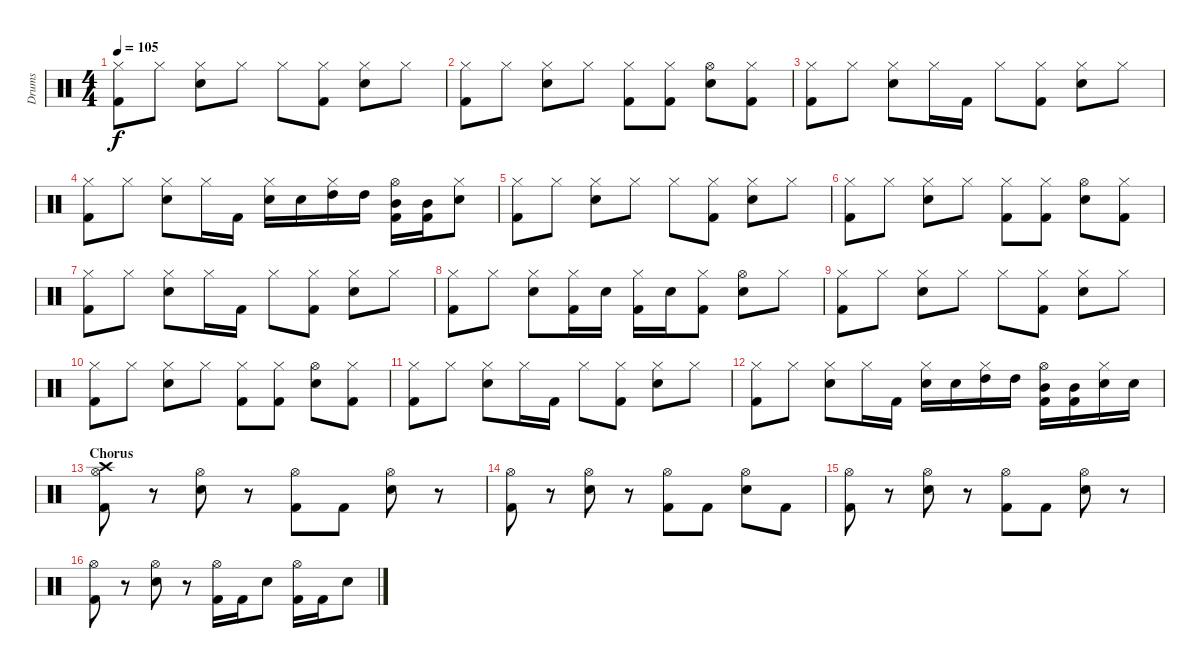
\track ("Drums" "Drums") {instrument percussion}
\staff {score}
\articulation defaults
\ts (4 4)
\tempo 105
\clef neutral
\ks c
("Hi-Hat (closed)" "Kick (hit) 2").8{dy f} "Hi-Hat (closed)".8 ("Hi-Hat (closed)" "Electric Snare (hit)").8 "Hi-Hat (closed)".8 "Hi-Hat (closed)".8 ("Hi-Hat (closed)" "Kick (hit) 2").8 ("Hi-Hat (closed)" "Electric Snare (hit)").8 "Hi-Hat (closed)".8 |
("Hi-Hat (closed)" "Kick (hit) 2").8 "Hi-Hat (closed)".8 ("Hi-Hat (closed)" "Electric Snare (hit)").8 "Hi-Hat (closed)".8 ("Hi-Hat (closed)" "Kick (hit) 2").8 ("Hi-Hat (closed)" "Kick (hit) 2").8 ("Hi-Hat (open)" "Electric Snare (hit)").8 ("Hi-Hat (closed)" "Kick (hit) 2").8 |
("Hi-Hat (closed)" "Kick (hit) 2").8 "Hi-Hat (closed)".8 ("Hi-Hat (closed)" "Electric Snare (hit)").8 "Hi-Hat (closed)".16 "Kick (hit) 2".16 "Hi-Hat (closed)".8 ("Hi-Hat (closed)" "Kick (hit) 2").8 ("Hi-Hat (closed)" "Electric Snare (hit)").8 "Hi-Hat (closed)".8 |
("Hi-Hat (closed)" "Kick (hit) 2").8 "Hi-Hat (closed)".8 ("Hi-Hat (closed)" "Electric Snare (hit)").8 "Hi-Hat (closed)".16 "Kick (hit) 2".16 ("Hi-Hat (closed)" "Electric Snare (hit)").16 "Electric Snare (hit)".16 ("Hi-Hat (closed)" "High Tom (hit)").16 "High Tom (hit)".16 ("Hi-Hat (open)" "Mid Tom (hit)" "Kick (hit) 2").16 ("Mid Tom (hit)" "Kick (hit) 2").16 ("Hi-Hat (closed)" "Electric Snare (hit)").8 |
("Hi-Hat (closed)" "Kick (hit) 2").8 "Hi-Hat (closed)".8 ("Hi-Hat (closed)" "Electric Snare (hit)").8 "Hi-Hat (closed)".8 "Hi-Hat (closed)".8 ("Hi-Hat (closed)" "Kick (hit) 2").8 ("Hi-Hat (closed)" "Electric Snare (hit)").8 "Hi-Hat (closed)".8 |
("Hi-Hat (closed)" "Kick (hit) 2").8 "Hi-Hat (closed)".8 ("Hi-Hat (closed)" "Electric Snare (hit)").8 "Hi-Hat (closed)".8 ("Hi-Hat (closed)" "Kick (hit) 2").8 ("Hi-Hat (closed)" "Kick (hit) 2").8 ("Hi-Hat (open)" "Electric Snare (hit)").8 ("Hi-Hat (closed)" "Kick (hit) 2").8 |
("Hi-Hat (closed)" "Kick (hit) 2").8 "Hi-Hat (closed)".8 ("Hi-Hat (closed)" "Electric Snare (hit)").8 "Hi-Hat (closed)".16 "Kick (hit) 2".16 "Hi-Hat (closed)".8 ("Hi-Hat (closed)" "Kick (hit) 2").8 ("Hi-Hat (closed)" "Electric Snare (hit)").8 "Hi-Hat (closed)".8 |
("Hi-Hat (closed)" "Kick (hit) 2").8 "Hi-Hat (closed)".8 ("Hi-Hat (closed)" "Electric Snare (hit)").8 ("Hi-Hat (closed)" "Kick (hit) 2").16 "Electric Snare (hit)".16 ("Hi-Hat (closed)" "Kick (hit) 2").16 "Electric Snare (hit)".16 ("Hi-Hat (closed)" "Kick (hit) 2").8 ("Hi-Hat (open)" "Electric Snare (hit)").8 "Hi-Hat (closed)".8 |
("Hi-Hat (closed)" "Kick (hit) 2").8 "Hi-Hat (closed)".8 ("Hi-Hat (closed)" "Electric Snare (hit)").8 "Hi-Hat (closed)".8 "Hi-Hat (closed)".8 ("Hi-Hat (closed)" "Kick (hit) 2").8 ("Hi-Hat (closed)" "Electric Snare (hit)").8 "Hi-Hat (closed)".8 |
("Hi-Hat (closed)" "Kick (hit) 2").8 "Hi-Hat (closed)".8 ("Hi-Hat (closed)" "Electric Snare (hit)").8 "Hi-Hat (closed)".8 ("Hi-Hat (closed)" "Kick (hit) 2").8 ("Hi-Hat (closed)" "Kick (hit) 2").8 ("Hi-Hat (open)" "Electric Snare (hit)").8 ("Hi-Hat (closed)" "Kick (hit) 2").8 |
("Hi-Hat (closed)" "Kick (hit) 2").8 "Hi-Hat (closed)".8 ("Hi-Hat (closed)" "Electric Snare (hit)").8 "Hi-Hat (closed)".16 "Kick (hit) 2".16 "Hi-Hat (closed)".8 ("Hi-Hat (closed)" "Kick (hit) 2").8 ("Hi-Hat (closed)" "Electric Snare (hit)").8 "Hi-Hat (closed)".8 |
("Hi-Hat (closed)" "Kick (hit) 2").8 "Hi-Hat (closed)".8 ("Hi-Hat (closed)" "Electric Snare (hit)").8 "Hi-Hat (closed)".16 "Kick (hit) 2".16 ("Hi-Hat (closed)" "Electric Snare (hit)").16 "Electric Snare (hit)".16 ("Hi-Hat (closed)" "High Tom (hit)").16 "High Tom (hit)".16 ("Hi-Hat (open)" "Mid Tom (hit)" "Kick (hit) 2").16 ("Mid Tom (hit)" "Kick (hit) 2").16 ("Hi-Hat (closed)" "Electric Snare (hit)").16 "Electric Snare (hit)".16 |
\section ("" "Chorus")
("Crash high (hit)" "Hi-Hat (open)" "Kick (hit) 2").8 r.8 ("Hi-Hat (open)" "Electric Snare (hit)").8 r.8 ("Hi-Hat (open)" "Kick (hit) 2").8 "Kick (hit) 2".8 ("Hi-Hat (open)" "Electric Snare (hit)").8 r.8 |
("Hi-Hat (open)" "Kick (hit) 2").8 r.8 ("Hi-Hat (open)" "Electric Snare (hit)").8 r.8 ("Hi-Hat (open)" "Kick (hit) 2").8 "Kick (hit) 2".8 ("Hi-Hat (open)" "Electric Snare (hit)").8 "Kick (hit) 2".8 |
("Hi-Hat (open)" "Kick (hit) 2").8 r.8 ("Hi-Hat (open)" "Electric Snare (hit)").8 r.8 ("Hi-Hat (open)" "Kick (hit) 2").8 "Kick (hit) 2".8 ("Hi-Hat (open)" "Electric Snare (hit)").8 r.8 |
("Hi-Hat (open)" "Kick (hit) 2").8 r.8 ("Hi-Hat (open)" "Electric Snare (hit)").8 r.8 ("Hi-Hat (open)" "Kick (hit) 2").16 "Kick (hit) 2".16 "Electric Snare (hit)".8 ("Hi-Hat (open)" "Kick (hit) 2").16 "Kick (hit) 2".16 "Electric Snare (hit)".8
